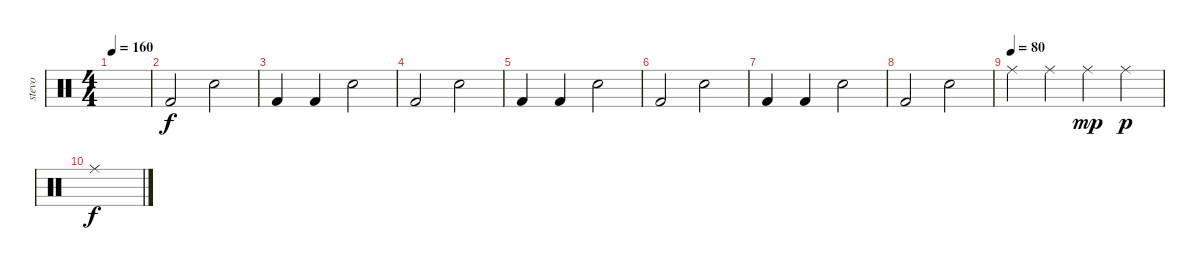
\track ("stevo" "stevo") {instrument percussion}
\staff {score}
\articulation defaults
\ts (4 4)
\tempo 160
\clef neutral
\ks c
|
"Kick (hit) 2".2 "Electric Snare (hit)".2 |
"Kick (hit) 2".4 "Kick (hit) 2".4 "Electric Snare (hit)".2 |
"Kick (hit) 2".2 "Electric Snare (hit)".2 |
"Kick (hit) 2".4 "Kick (hit) 2".4 "Electric Snare (hit)".2 |
"Kick (hit) 2".2 "Electric Snare (hit)".2 |
"Kick (hit) 2".4 "Kick (hit) 2".4 "Electric Snare (hit)".2 |
"Kick (hit) 2".2 "Electric Snare (hit)".2 |
\tempo (80)
"Ride (middle)".4 "Ride (middle)".4 "Ride (middle)".4{dy mp} "Ride (middle)".4{dy p} |
"Ride (middle)".1{dy f}
